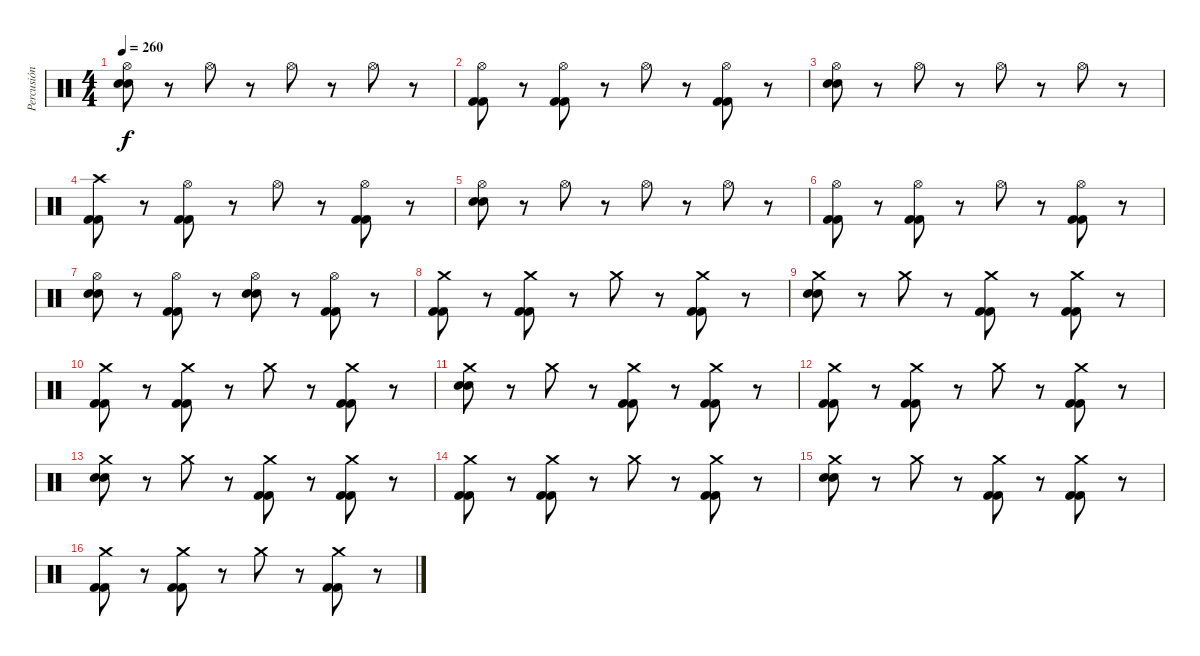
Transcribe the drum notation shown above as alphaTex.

\track ("Percusión" "Percusión") {instrument percussion}
\staff {score}
\articulation defaults
\ts (4 4)
\tempo 260
\clef neutral
\ks c
("Electric Snare (hit)" "Electric Snare (hit)" "Hi-Hat (open)").8{dy f} r.8 "Hi-Hat (open)".8 r.8 "Hi-Hat (open)".8 r.8 "Hi-Hat (open)".8 r.8 |
("Kick (hit) 2" "Kick (hit) 2" "Hi-Hat (open)").8 r.8 ("Kick (hit) 2" "Kick (hit) 2" "Hi-Hat (open)").8 r.8 "Hi-Hat (open)".8 r.8 ("Kick (hit) 2" "Kick (hit) 2" "Hi-Hat (open)").8 r.8 |
("Electric Snare (hit)" "Electric Snare (hit)" "Hi-Hat (open)").8 r.8 "Hi-Hat (open)".8 r.8 "Hi-Hat (open)".8 r.8 "Hi-Hat (open)".8 r.8 |
("Kick (hit) 2" "Kick (hit) 2" "Crash high (hit)").8 r.8 ("Kick (hit) 2" "Kick (hit) 2" "Hi-Hat (open)").8 r.8 "Hi-Hat (open)".8 r.8 ("Kick (hit) 2" "Kick (hit) 2" "Hi-Hat (open)").8 r.8 |
("Electric Snare (hit)" "Electric Snare (hit)" "Hi-Hat (open)").8 r.8 "Hi-Hat (open)".8 r.8 "Hi-Hat (open)".8 r.8 "Hi-Hat (open)".8 r.8 |
("Kick (hit) 2" "Kick (hit) 2" "Hi-Hat (open)").8 r.8 ("Kick (hit) 2" "Kick (hit) 2" "Hi-Hat (open)").8 r.8 "Hi-Hat (open)".8 r.8 ("Kick (hit) 2" "Kick (hit) 2" "Hi-Hat (open)").8 r.8 |
("Electric Snare (hit)" "Electric Snare (hit)" "Hi-Hat (open)").8 r.8 ("Kick (hit) 2" "Kick (hit) 2" "Hi-Hat (open)").8 r.8 ("Electric Snare (hit)" "Electric Snare (hit)" "Hi-Hat (open)").8 r.8 ("Kick (hit) 2" "Kick (hit) 2" "Hi-Hat (open)").8 r.8 |
("Kick (hit) 2" "Kick (hit) 2" "Crash medium (hit)").8 r.8 ("Kick (hit) 2" "Kick (hit) 2" "Crash medium (hit)").8 r.8 "Crash medium (hit)".8 r.8 ("Kick (hit) 2" "Kick (hit) 2" "Crash medium (hit)").8 r.8 |
("Electric Snare (hit)" "Electric Snare (hit)" "Crash medium (hit)").8 r.8 "Crash medium (hit)".8 r.8 ("Kick (hit) 2" "Kick (hit) 2" "Crash medium (hit)").8 r.8 ("Kick (hit) 2" "Kick (hit) 2" "Crash medium (hit)").8 r.8 |
("Kick (hit) 2" "Kick (hit) 2" "Crash medium (hit)").8 r.8 ("Kick (hit) 2" "Kick (hit) 2" "Crash medium (hit)").8 r.8 "Crash medium (hit)".8 r.8 ("Kick (hit) 2" "Kick (hit) 2" "Crash medium (hit)").8 r.8 |
("Electric Snare (hit)" "Electric Snare (hit)" "Crash medium (hit)").8 r.8 "Crash medium (hit)".8 r.8 ("Kick (hit) 2" "Kick (hit) 2" "Crash medium (hit)").8 r.8 ("Kick (hit) 2" "Kick (hit) 2" "Crash medium (hit)").8 r.8 |
("Kick (hit) 2" "Kick (hit) 2" "Crash medium (hit)").8 r.8 ("Kick (hit) 2" "Kick (hit) 2" "Crash medium (hit)").8 r.8 "Crash medium (hit)".8 r.8 ("Kick (hit) 2" "Kick (hit) 2" "Crash medium (hit)").8 r.8 |
("Electric Snare (hit)" "Electric Snare (hit)" "Crash medium (hit)").8 r.8 "Crash medium (hit)".8 r.8 ("Kick (hit) 2" "Kick (hit) 2" "Crash medium (hit)").8 r.8 ("Kick (hit) 2" "Kick (hit) 2" "Crash medium (hit)").8 r.8 |
("Kick (hit) 2" "Kick (hit) 2" "Crash medium (hit)").8 r.8 ("Kick (hit) 2" "Kick (hit) 2" "Crash medium (hit)").8 r.8 "Crash medium (hit)".8 r.8 ("Kick (hit) 2" "Kick (hit) 2" "Crash medium (hit)").8 r.8 |
("Electric Snare (hit)" "Electric Snare (hit)" "Crash medium (hit)").8 r.8 "Crash medium (hit)".8 r.8 ("Kick (hit) 2" "Kick (hit) 2" "Crash medium (hit)").8 r.8 ("Kick (hit) 2" "Kick (hit) 2" "Crash medium (hit)").8 r.8 |
("Kick (hit) 2" "Kick (hit) 2" "Crash medium (hit)").8 r.8 ("Kick (hit) 2" "Kick (hit) 2" "Crash medium (hit)").8 r.8 "Crash medium (hit)".8 r.8 ("Kick (hit) 2" "Kick (hit) 2" "Crash medium (hit)").8 r.8
